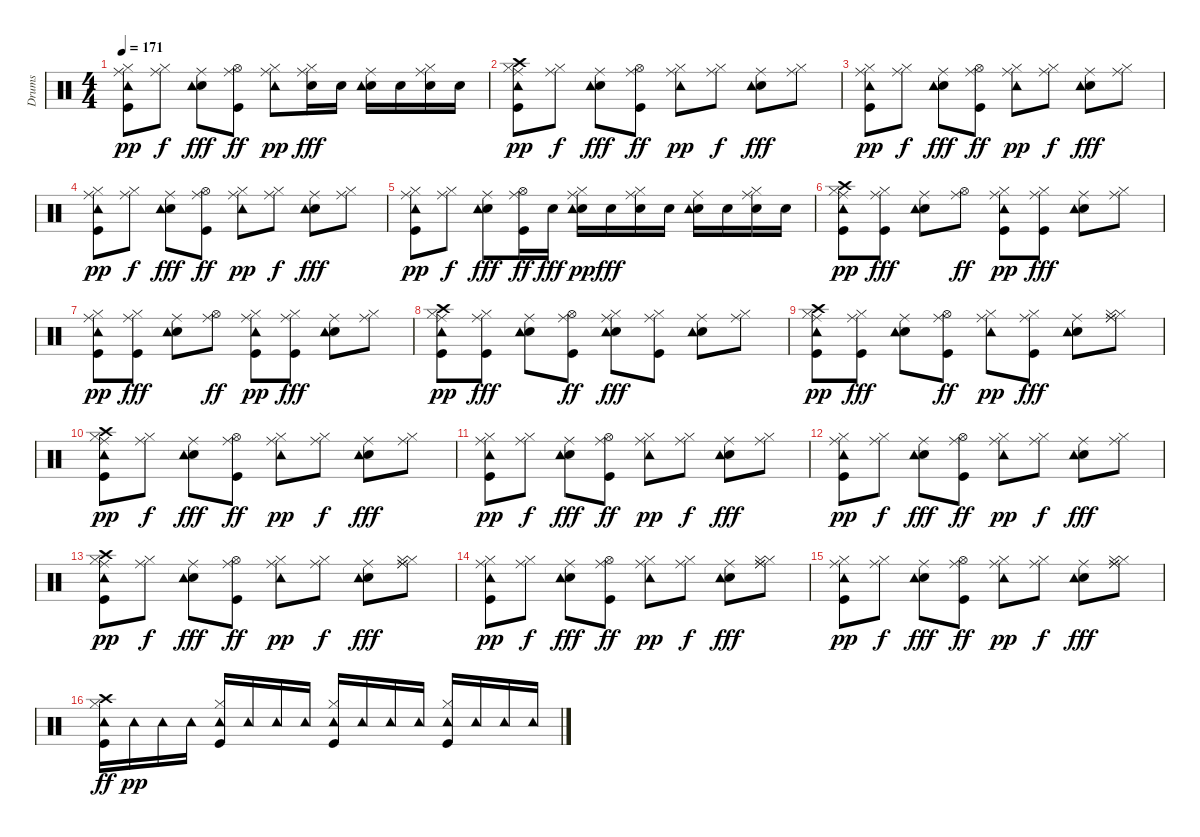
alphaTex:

\track ("Drums" "Drums") {instrument percussion}
\staff {score}
\articulation defaults
\ts (4 4)
\tempo 171
\clef neutral
\ks c
("Kick (hit)" "Hi-Hat (closed)" "Ride (middle)" "Tambourine (hit)").8{dy pp} ("Hi-Hat (closed)" "Ride (middle)").8{dy f} ("Snare (hit) 2" "Ride (middle)" "Tambourine (hit)").8{dy fff} ("Kick (hit)" "Hi-Hat (open)" "Ride (middle)").8{dy ff} ("Hi-Hat (closed)" "Ride (middle)" "Tambourine (hit)").8{dy pp} ("Snare (hit) 2" "Hi-Hat (closed)" "Ride (middle)").16{dy fff} "Snare (hit) 2".16 ("Snare (hit) 2" "Ride (middle)" "Tambourine (hit)").16 "Snare (hit) 2".16 ("Snare (hit) 2" "Hi-Hat (closed)" "Ride (middle)").16 "Snare (hit) 2".16 |
("Kick (hit)" "Hi-Hat (closed)" "Crash high (hit)" "Ride (middle)" "Tambourine (hit)").8{dy pp} ("Hi-Hat (closed)" "Ride (middle)").8{dy f} ("Snare (hit) 2" "Ride (middle)" "Tambourine (hit)").8{dy fff} ("Kick (hit)" "Hi-Hat (open)" "Ride (middle)").8{dy ff} ("Hi-Hat (closed)" "Ride (middle)" "Tambourine (hit)").8{dy pp} ("Hi-Hat (closed)" "Ride (middle)").8{dy f} ("Snare (hit) 2" "Ride (middle)" "Tambourine (hit)").8{dy fff} ("Hi-Hat (closed)" "Ride (middle)").8 |
("Kick (hit)" "Hi-Hat (closed)" "Ride (middle)" "Tambourine (hit)").8{dy pp} ("Hi-Hat (closed)" "Ride (middle)").8{dy f} ("Snare (hit) 2" "Ride (middle)" "Tambourine (hit)").8{dy fff} ("Kick (hit)" "Hi-Hat (open)" "Ride (middle)").8{dy ff} ("Hi-Hat (closed)" "Ride (middle)" "Tambourine (hit)").8{dy pp} ("Hi-Hat (closed)" "Ride (middle)").8{dy f} ("Snare (hit) 2" "Ride (middle)" "Tambourine (hit)").8{dy fff} ("Hi-Hat (closed)" "Ride (middle)").8 |
("Kick (hit)" "Hi-Hat (closed)" "Ride (middle)" "Tambourine (hit)").8{dy pp} ("Hi-Hat (closed)" "Ride (middle)").8{dy f} ("Snare (hit) 2" "Ride (middle)" "Tambourine (hit)").8{dy fff} ("Kick (hit)" "Hi-Hat (open)" "Ride (middle)").8{dy ff} ("Hi-Hat (closed)" "Ride (middle)" "Tambourine (hit)").8{dy pp} ("Hi-Hat (closed)" "Ride (middle)").8{dy f} ("Snare (hit) 2" "Ride (middle)" "Tambourine (hit)").8{dy fff} ("Hi-Hat (closed)" "Ride (middle)").8 |
("Kick (hit)" "Hi-Hat (closed)" "Ride (middle)" "Tambourine (hit)").8{dy pp} ("Hi-Hat (closed)" "Ride (middle)").8{dy f} ("Snare (hit) 2" "Ride (middle)" "Tambourine (hit)").8{dy fff} ("Kick (hit)" "Hi-Hat (open)" "Ride (middle)").16{dy ff} "Snare (hit) 2".16{dy fff} ("Snare (hit) 2" "Hi-Hat (closed)" "Ride (middle)" "Tambourine (hit)").16{dy pp} "Snare (hit) 2".16{dy fff} ("Snare (hit) 2" "Hi-Hat (closed)" "Ride (middle)").16 "Snare (hit) 2".16 ("Snare (hit) 2" "Ride (middle)" "Tambourine (hit)").16 "Snare (hit) 2".16 ("Snare (hit) 2" "Hi-Hat (closed)" "Ride (middle)").16 "Snare (hit) 2".16 |
("Kick (hit)" "Hi-Hat (closed)" "Crash high (hit)" "Ride (middle)" "Tambourine (hit)").8{dy pp} ("Kick (hit)" "Hi-Hat (closed)" "Ride (middle)").8{dy fff} ("Snare (hit) 2" "Ride (middle)" "Tambourine (hit)").8 ("Hi-Hat (open)" "Ride (middle)").8{dy ff} ("Kick (hit)" "Hi-Hat (closed)" "Ride (middle)" "Tambourine (hit)").8{dy pp} ("Kick (hit)" "Hi-Hat (closed)" "Ride (middle)").8{dy fff} ("Snare (hit) 2" "Ride (middle)" "Tambourine (hit)").8 ("Hi-Hat (closed)" "Ride (middle)").8 |
("Kick (hit)" "Hi-Hat (closed)" "Ride (middle)" "Tambourine (hit)").8{dy pp} ("Kick (hit)" "Hi-Hat (closed)" "Ride (middle)").8{dy fff} ("Snare (hit) 2" "Ride (middle)" "Tambourine (hit)").8 ("Hi-Hat (open)" "Ride (middle)").8{dy ff} ("Kick (hit)" "Hi-Hat (closed)" "Ride (middle)" "Tambourine (hit)").8{dy pp} ("Kick (hit)" "Hi-Hat (closed)" "Ride (middle)").8{dy fff} ("Snare (hit) 2" "Ride (middle)" "Tambourine (hit)").8 ("Hi-Hat (closed)" "Ride (middle)").8 |
("Kick (hit)" "Hi-Hat (closed)" "Crash high (hit)" "Ride (middle)" "Tambourine (hit)").8{dy pp} ("Kick (hit)" "Hi-Hat (closed)" "Ride (middle)").8{dy fff} ("Snare (hit) 2" "Ride (middle)" "Tambourine (hit)").8 ("Kick (hit)" "Hi-Hat (open)" "Ride (middle)").8{dy ff} ("Snare (hit) 2" "Hi-Hat (closed)" "Ride (middle)" "Tambourine (hit)").8{dy fff} ("Kick (hit)" "Hi-Hat (closed)" "Ride (middle)").8 ("Snare (hit) 2" "Ride (middle)" "Tambourine (hit)").8 ("Hi-Hat (closed)" "Ride (middle)").8 |
("Kick (hit)" "Hi-Hat (closed)" "Crash high (hit)" "Ride (middle)" "Tambourine (hit)").8{dy pp} ("Kick (hit)" "Hi-Hat (closed)" "Ride (middle)").8{dy fff} ("Snare (hit) 2" "Ride (middle)" "Tambourine (hit)").8 ("Kick (hit)" "Hi-Hat (open)" "Ride (middle)").8{dy ff} ("Hi-Hat (closed)" "Ride (middle)" "Tambourine (hit)").8{dy pp} ("Kick (hit)" "Hi-Hat (closed)" "Ride (middle)").8{dy fff} ("Snare (hit) 2" "Ride (middle)" "Tambourine (hit)").8 ("Hi-Hat (closed)" "Hi-Hat (closed)" "Ride (middle)" "Ride (middle)").8 |
("Kick (hit)" "Hi-Hat (closed)" "Crash high (hit)" "Ride (middle)" "Tambourine (hit)").8{dy pp} ("Hi-Hat (closed)" "Ride (middle)").8{dy f} ("Snare (hit) 2" "Ride (middle)" "Tambourine (hit)").8{dy fff} ("Kick (hit)" "Hi-Hat (open)" "Ride (middle)").8{dy ff} ("Hi-Hat (closed)" "Ride (middle)" "Tambourine (hit)").8{dy pp} ("Hi-Hat (closed)" "Ride (middle)").8{dy f} ("Snare (hit) 2" "Ride (middle)" "Tambourine (hit)").8{dy fff} ("Hi-Hat (closed)" "Ride (middle)").8 |
("Kick (hit)" "Hi-Hat (closed)" "Ride (middle)" "Tambourine (hit)").8{dy pp} ("Hi-Hat (closed)" "Ride (middle)").8{dy f} ("Snare (hit) 2" "Ride (middle)" "Tambourine (hit)").8{dy fff} ("Kick (hit)" "Hi-Hat (open)" "Ride (middle)").8{dy ff} ("Hi-Hat (closed)" "Ride (middle)" "Tambourine (hit)").8{dy pp} ("Hi-Hat (closed)" "Ride (middle)").8{dy f} ("Snare (hit) 2" "Ride (middle)" "Tambourine (hit)").8{dy fff} ("Hi-Hat (closed)" "Ride (middle)").8 |
("Kick (hit)" "Hi-Hat (closed)" "Ride (middle)" "Tambourine (hit)").8{dy pp} ("Hi-Hat (closed)" "Ride (middle)").8{dy f} ("Snare (hit) 2" "Ride (middle)" "Tambourine (hit)").8{dy fff} ("Kick (hit)" "Hi-Hat (open)" "Ride (middle)").8{dy ff} ("Hi-Hat (closed)" "Ride (middle)" "Tambourine (hit)").8{dy pp} ("Hi-Hat (closed)" "Ride (middle)").8{dy f} ("Snare (hit) 2" "Ride (middle)" "Tambourine (hit)").8{dy fff} ("Hi-Hat (closed)" "Ride (middle)").8 |
("Kick (hit)" "Hi-Hat (closed)" "Crash high (hit)" "Ride (middle)" "Tambourine (hit)").8{dy pp} ("Hi-Hat (closed)" "Ride (middle)").8{dy f} ("Snare (hit) 2" "Ride (middle)" "Tambourine (hit)").8{dy fff} ("Kick (hit)" "Hi-Hat (open)" "Ride (middle)").8{dy ff} ("Hi-Hat (closed)" "Ride (middle)" "Tambourine (hit)").8{dy pp} ("Hi-Hat (closed)" "Ride (middle)").8{dy f} ("Snare (hit) 2" "Ride (middle)" "Tambourine (hit)").8{dy fff} ("Hi-Hat (closed)" "Hi-Hat (closed)" "Ride (middle)" "Ride (middle)").8 |
("Kick (hit)" "Hi-Hat (closed)" "Ride (middle)" "Tambourine (hit)").8{dy pp} ("Hi-Hat (closed)" "Ride (middle)").8{dy f} ("Snare (hit) 2" "Ride (middle)" "Tambourine (hit)").8{dy fff} ("Kick (hit)" "Hi-Hat (open)" "Ride (middle)").8{dy ff} ("Hi-Hat (closed)" "Ride (middle)" "Tambourine (hit)").8{dy pp} ("Hi-Hat (closed)" "Ride (middle)").8{dy f} ("Snare (hit) 2" "Ride (middle)" "Tambourine (hit)").8{dy fff} ("Hi-Hat (closed)" "Hi-Hat (closed)" "Ride (middle)" "Ride (middle)").8 |
("Kick (hit)" "Hi-Hat (closed)" "Ride (middle)" "Tambourine (hit)").8{dy pp} ("Hi-Hat (closed)" "Ride (middle)").8{dy f} ("Snare (hit) 2" "Ride (middle)" "Tambourine (hit)").8{dy fff} ("Kick (hit)" "Hi-Hat (open)" "Ride (middle)").8{dy ff} ("Hi-Hat (closed)" "Ride (middle)" "Tambourine (hit)").8{dy pp} ("Hi-Hat (closed)" "Ride (middle)").8{dy f} ("Snare (hit) 2" "Ride (middle)" "Tambourine (hit)").8{dy fff} ("Hi-Hat (closed)" "Hi-Hat (closed)" "Ride (middle)" "Ride (middle)").8 |
("Kick (hit)" "Hi-Hat (closed)" "Crash high (hit)" "Tambourine (hit)").16{dy ff} "Tambourine (hit)".16{dy pp} "Tambourine (hit)".16 "Tambourine (hit)".16 ("Kick (hit)" "Hi-Hat (closed)" "Tambourine (hit)").16 "Tambourine (hit)".16 "Tambourine (hit)".16 "Tambourine (hit)".16 ("Kick (hit)" "Hi-Hat (closed)" "Tambourine (hit)").16 "Tambourine (hit)".16 "Tambourine (hit)".16 "Tambourine (hit)".16 ("Kick (hit)" "Hi-Hat (closed)" "Tambourine (hit)").16 "Tambourine (hit)".16 "Tambourine (hit)".16 "Tambourine (hit)".16
